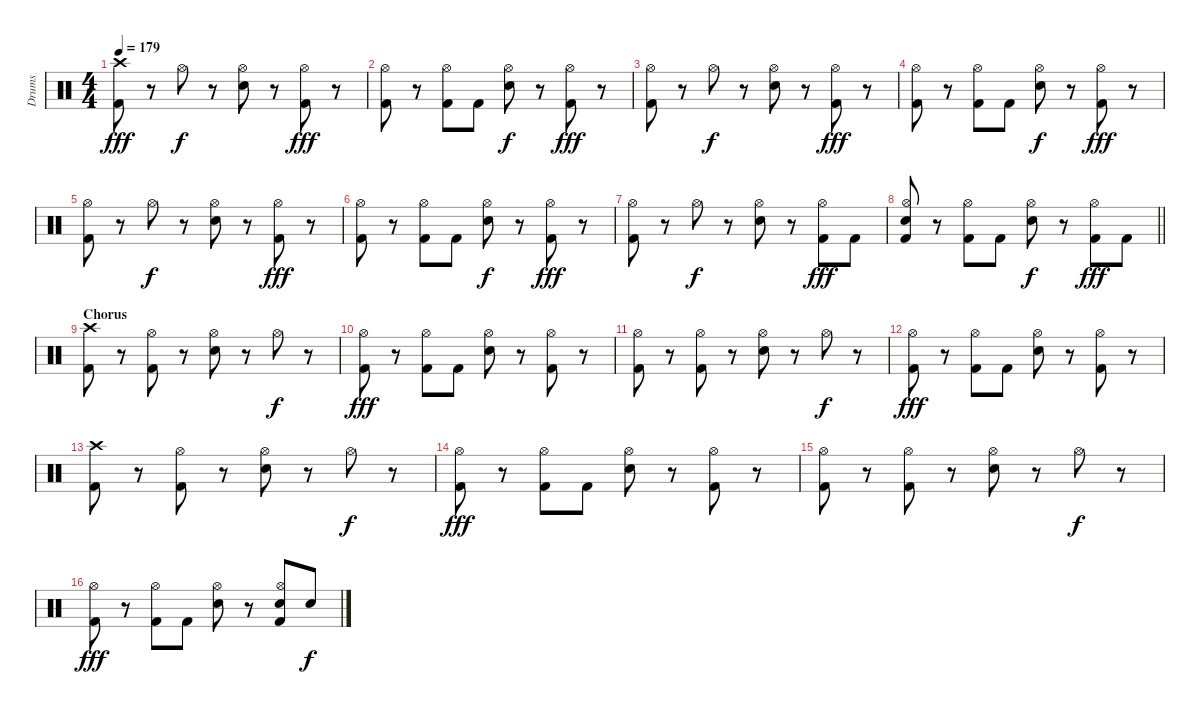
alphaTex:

\track ("Drums" "Drums") {instrument percussion}
\staff {score}
\articulation defaults
\ts (4 4)
\tempo 179
\clef neutral
\ks c
("Crash high (hit)" "Kick (hit) 2").8{dy fff} r.8 "Hi-Hat (open)".8{dy f} r.8 ("Hi-Hat (open)" "Snare (hit) 2").8 r.8 ("Hi-Hat (open)" "Kick (hit) 2").8{dy fff} r.8 |
("Hi-Hat (open)" "Kick (hit) 2").8 r.8 ("Hi-Hat (open)" "Kick (hit) 2").8 "Kick (hit) 2".8 ("Hi-Hat (open)" "Snare (hit) 2").8{dy f} r.8 ("Hi-Hat (open)" "Kick (hit) 2").8{dy fff} r.8 |
("Hi-Hat (open)" "Kick (hit) 2").8 r.8 "Hi-Hat (open)".8{dy f} r.8 ("Hi-Hat (open)" "Snare (hit) 2").8 r.8 ("Hi-Hat (open)" "Kick (hit) 2").8{dy fff} r.8 |
("Hi-Hat (open)" "Kick (hit) 2").8 r.8 ("Hi-Hat (open)" "Kick (hit) 2").8 "Kick (hit) 2".8 ("Hi-Hat (open)" "Snare (hit) 2").8{dy f} r.8 ("Hi-Hat (open)" "Kick (hit) 2").8{dy fff} r.8 |
("Hi-Hat (open)" "Kick (hit) 2").8 r.8 "Hi-Hat (open)".8{dy f} r.8 ("Hi-Hat (open)" "Snare (hit) 2").8 r.8 ("Hi-Hat (open)" "Kick (hit) 2").8{dy fff} r.8 |
("Hi-Hat (open)" "Kick (hit) 2").8 r.8 ("Hi-Hat (open)" "Kick (hit) 2").8 "Kick (hit) 2".8 ("Hi-Hat (open)" "Snare (hit) 2").8{dy f} r.8 ("Hi-Hat (open)" "Kick (hit) 2").8{dy fff} r.8 |
("Hi-Hat (open)" "Kick (hit) 2").8 r.8 "Hi-Hat (open)".8{dy f} r.8 ("Hi-Hat (open)" "Snare (hit) 2").8 r.8 ("Hi-Hat (open)" "Kick (hit) 2").8{dy fff} "Kick (hit) 2".8 |
\barLineRight lightlight
("Hi-Hat (open)" "Snare (hit) 2" "Kick (hit) 2").8 r.8 ("Hi-Hat (open)" "Kick (hit) 2").8 "Kick (hit) 2".8 ("Hi-Hat (open)" "Snare (hit) 2").8{dy f} r.8 ("Hi-Hat (open)" "Kick (hit) 2").8{dy fff} "Kick (hit) 2".8 |
\section ("" "Chorus")
("Crash high (hit)" "Kick (hit) 2").8 r.8 ("Hi-Hat (open)" "Kick (hit) 2").8 r.8 ("Hi-Hat (open)" "Snare (hit) 2").8 r.8 "Hi-Hat (open)".8{dy f} r.8 |
("Hi-Hat (open)" "Kick (hit) 2").8{dy fff} r.8 ("Hi-Hat (open)" "Kick (hit) 2").8 "Kick (hit) 2".8 ("Hi-Hat (open)" "Snare (hit) 2").8 r.8 ("Hi-Hat (open)" "Kick (hit) 2").8 r.8 |
("Hi-Hat (open)" "Kick (hit) 2").8 r.8 ("Hi-Hat (open)" "Kick (hit) 2").8 r.8 ("Hi-Hat (open)" "Snare (hit) 2").8 r.8 "Hi-Hat (open)".8{dy f} r.8 |
("Hi-Hat (open)" "Kick (hit) 2").8{dy fff} r.8 ("Hi-Hat (open)" "Kick (hit) 2").8 "Kick (hit) 2".8 ("Hi-Hat (open)" "Snare (hit) 2").8 r.8 ("Hi-Hat (open)" "Kick (hit) 2").8 r.8 |
("Crash high (hit)" "Kick (hit) 2").8 r.8 ("Hi-Hat (open)" "Kick (hit) 2").8 r.8 ("Hi-Hat (open)" "Snare (hit) 2").8 r.8 "Hi-Hat (open)".8{dy f} r.8 |
("Hi-Hat (open)" "Kick (hit) 2").8{dy fff} r.8 ("Hi-Hat (open)" "Kick (hit) 2").8 "Kick (hit) 2".8 ("Hi-Hat (open)" "Snare (hit) 2").8 r.8 ("Hi-Hat (open)" "Kick (hit) 2").8 r.8 |
("Hi-Hat (open)" "Kick (hit) 2").8 r.8 ("Hi-Hat (open)" "Kick (hit) 2").8 r.8 ("Hi-Hat (open)" "Snare (hit) 2").8 r.8 "Hi-Hat (open)".8{dy f} r.8 |
("Hi-Hat (open)" "Kick (hit) 2").8{dy fff} r.8 ("Hi-Hat (open)" "Kick (hit) 2").8 "Kick (hit) 2".8 ("Hi-Hat (open)" "Snare (hit) 2").8 r.8 ("Hi-Hat (open)" "Snare (hit) 2" "Kick (hit) 2").8 "Snare (hit) 2".8{dy f}
